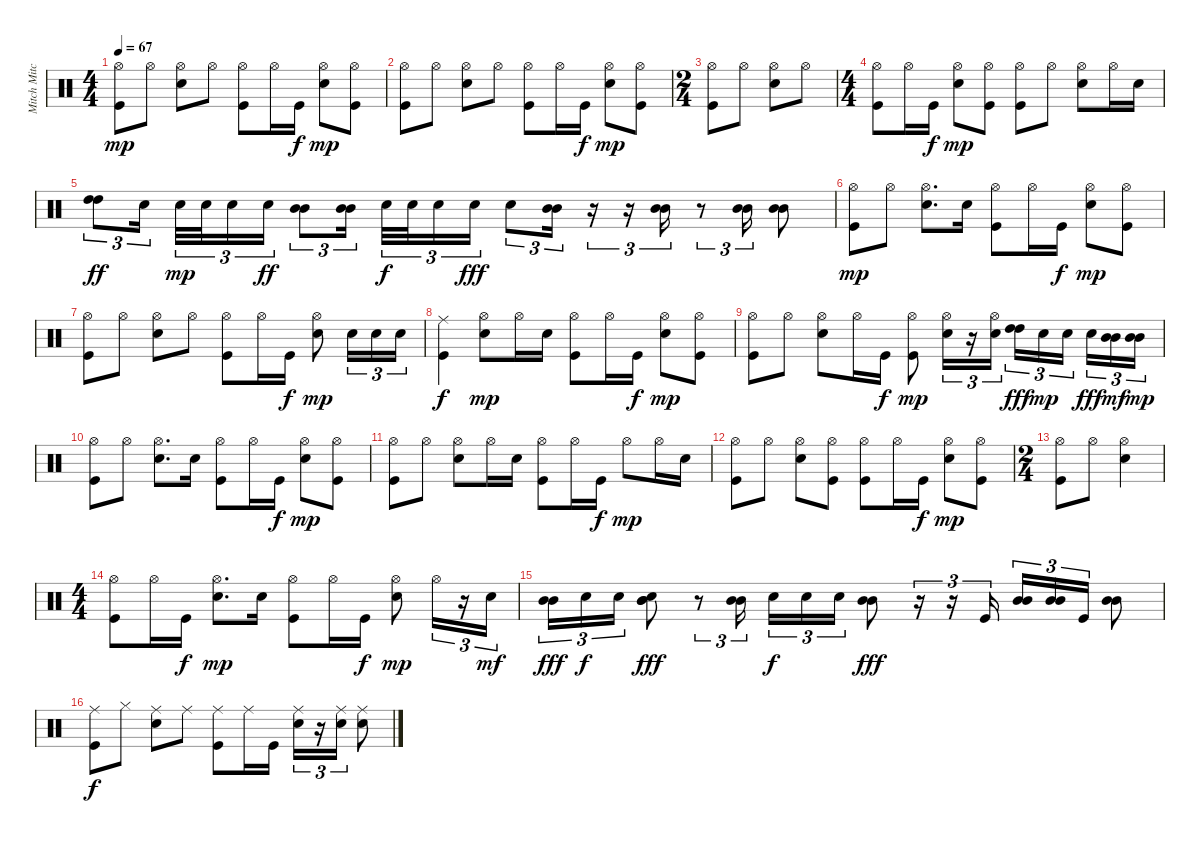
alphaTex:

\track ("Mitch Mitchell" "Mitch Mitc") {instrument percussion}
\staff {score}
\articulation defaults
\ts (4 4)
\tempo 67
\clef neutral
\ks c
("Hi-Hat (open)" "Kick (hit)").8{dy mp} "Hi-Hat (open)".8 ("Hi-Hat (open)" "Electric Snare (hit)").8 "Hi-Hat (open)".8 ("Hi-Hat (open)" "Kick (hit)").8 "Hi-Hat (open)".16 "Kick (hit)".16{dy f} ("Hi-Hat (open)" "Electric Snare (hit)").8{dy mp} ("Hi-Hat (open)" "Kick (hit)").8 |
("Hi-Hat (open)" "Kick (hit)").8 "Hi-Hat (open)".8 ("Hi-Hat (open)" "Electric Snare (hit)").8 "Hi-Hat (open)".8 ("Hi-Hat (open)" "Kick (hit)").8 "Hi-Hat (open)".16 "Kick (hit)".16{dy f} ("Hi-Hat (open)" "Electric Snare (hit)").8{dy mp} ("Hi-Hat (open)" "Kick (hit)").8 |
\ts (2 4)
("Hi-Hat (open)" "Kick (hit)").8 "Hi-Hat (open)".8 ("Hi-Hat (open)" "Electric Snare (hit)").8 "Hi-Hat (open)".8 |
\ts (4 4)
("Hi-Hat (open)" "Kick (hit)").8 "Hi-Hat (open)".16 "Kick (hit)".16{dy f} ("Hi-Hat (open)" "Electric Snare (hit)").8{dy mp} ("Hi-Hat (open)" "Kick (hit)").8 ("Hi-Hat (open)" "Kick (hit)").8 "Hi-Hat (open)".8 ("Hi-Hat (open)" "Electric Snare (hit)").8 "Hi-Hat (open)".16 "Electric Snare (hit)".16 |
("High Tom (hit)" "High Tom (hit)").8{tu (3 2) dy ff} "Electric Snare (hit)".16{tu (3 2) beam splitsecondary} "Electric Snare (hit)".32{tu (3 2) dy mp} "Electric Snare (hit)".32{tu (3 2)} "Electric Snare (hit)".16{tu (3 2)} "Electric Snare (hit)".16{tu (3 2) dy ff} ("Mid Tom (hit)" "Mid Tom (hit)").8{tu (3 2)} ("Mid Tom (hit)" "Mid Tom (hit)").16{tu (3 2) beam splitsecondary} "Electric Snare (hit)".32{tu (3 2) dy f} "Electric Snare (hit)".32{tu (3 2)} "Electric Snare (hit)".16{tu (3 2)} "Electric Snare (hit)".16{tu (3 2) dy fff} "Electric Snare (hit)".8{tu (3 2)} ("Mid Tom (hit)" "Mid Tom (hit)").16{tu (3 2)} r.16{tu (3 2)} r.16{tu (3 2)} ("Mid Tom (hit)" "Mid Tom (hit)").16{tu (3 2)} r.8{tu (3 2)} ("Mid Tom (hit)" "Mid Tom (hit)").16{tu (3 2)} ("Mid Tom (hit)" "Mid Tom (hit)").8 |
("Hi-Hat (open)" "Kick (hit)").8{dy mp} "Hi-Hat (open)".8 ("Hi-Hat (open)" "Electric Snare (hit)").8{d} "Electric Snare (hit)".16 ("Hi-Hat (open)" "Kick (hit)").8 "Hi-Hat (open)".16 "Kick (hit)".16{dy f} ("Hi-Hat (open)" "Electric Snare (hit)").8{dy mp} ("Hi-Hat (open)" "Kick (hit)").8 |
("Hi-Hat (open)" "Kick (hit)").8 "Hi-Hat (open)".8 ("Hi-Hat (open)" "Electric Snare (hit)").8 "Hi-Hat (open)".8 ("Hi-Hat (open)" "Kick (hit)").8 "Hi-Hat (open)".16 "Kick (hit)".16{dy f} ("Hi-Hat (open)" "Electric Snare (hit)").8{dy mp} "Electric Snare (hit)".16{tu (3 2)} "Electric Snare (hit)".16{tu (3 2)} "Electric Snare (hit)".16{tu (3 2)} |
("Ride (middle)" "Kick (hit)").4{dy f} ("Hi-Hat (open)" "Electric Snare (hit)").8{dy mp} "Hi-Hat (open)".16 "Electric Snare (hit)".16 ("Hi-Hat (open)" "Kick (hit)").8 "Hi-Hat (open)".16 "Kick (hit)".16{dy f} ("Hi-Hat (open)" "Electric Snare (hit)").8{dy mp} ("Hi-Hat (open)" "Kick (hit)").8 |
("Hi-Hat (open)" "Kick (hit)").8 "Hi-Hat (open)".8 ("Hi-Hat (open)" "Electric Snare (hit)").8 "Hi-Hat (open)".16 "Kick (hit)".16{dy f} ("Hi-Hat (open)" "Kick (hit)").8{dy mp} ("Hi-Hat (open)" "Electric Snare (hit)").16{tu (3 2)} r.16{tu (3 2)} ("Hi-Hat (open)" "Electric Snare (hit)").16{tu (3 2)} ("High Tom (hit)" "High Tom (hit)").16{tu (3 2) dy fff} "Electric Snare (hit)".16{tu (3 2) dy mp} "Electric Snare (hit)".16{tu (3 2) beam splitsecondary} "Electric Snare (hit)".16{tu (3 2) dy fff} ("Mid Tom (hit)" "Mid Tom (hit)").16{tu (3 2) dy mf} ("Mid Tom (hit)" "Mid Tom (hit)").16{tu (3 2) dy mp} |
("Hi-Hat (open)" "Kick (hit)").8 "Hi-Hat (open)".8 ("Hi-Hat (open)" "Electric Snare (hit)").8{d} "Electric Snare (hit)".16 ("Hi-Hat (open)" "Kick (hit)").8 "Hi-Hat (open)".16 "Kick (hit)".16{dy f} ("Hi-Hat (open)" "Electric Snare (hit)").8{dy mp} ("Hi-Hat (open)" "Kick (hit)").8 |
("Hi-Hat (open)" "Kick (hit)").8 "Hi-Hat (open)".8 ("Hi-Hat (open)" "Electric Snare (hit)").8 "Hi-Hat (open)".16 "Electric Snare (hit)".16 ("Hi-Hat (open)" "Kick (hit)").8 "Hi-Hat (open)".16 "Kick (hit)".16{dy f} "Hi-Hat (open)".8{dy mp} "Hi-Hat (open)".16 "Electric Snare (hit)".16 |
("Hi-Hat (open)" "Kick (hit)").8 "Hi-Hat (open)".8 ("Hi-Hat (open)" "Electric Snare (hit)").8 ("Hi-Hat (open)" "Kick (hit)").8 ("Hi-Hat (open)" "Kick (hit)").8 "Hi-Hat (open)".16 "Kick (hit)".16{dy f} ("Hi-Hat (open)" "Electric Snare (hit)").8{dy mp} ("Hi-Hat (open)" "Kick (hit)").8 |
\ts (2 4)
("Hi-Hat (open)" "Kick (hit)").8 "Hi-Hat (open)".8 ("Hi-Hat (open)" "Electric Snare (hit)").4 |
\ts (4 4)
("Hi-Hat (open)" "Kick (hit)").8 "Hi-Hat (open)".16 "Kick (hit)".16{dy f} ("Hi-Hat (open)" "Electric Snare (hit)").8{d dy mp} "Electric Snare (hit)".16 ("Hi-Hat (open)" "Kick (hit)").8 "Hi-Hat (open)".16 "Kick (hit)".16{dy f} ("Hi-Hat (open)" "Electric Snare (hit)").8{dy mp} "Hi-Hat (open)".16{tu (3 2)} r.16{tu (3 2)} "Electric Snare (hit)".16{tu (3 2) dy mf} |
("Mid Tom (hit)" "Mid Tom (hit)").16{tu (3 2) dy fff} "Electric Snare (hit)".16{tu (3 2) dy f} "Electric Snare (hit)".16{tu (3 2)} ("Mid Tom (hit)" "Electric Snare (hit)" "Mid Tom (hit)").8{dy fff} r.8{tu (3 2)} ("Mid Tom (hit)" "Mid Tom (hit)").16{tu (3 2) beam splitsecondary} "Electric Snare (hit)".16{tu (3 2) dy f} "Electric Snare (hit)".16{tu (3 2)} "Electric Snare (hit)".16{tu (3 2)} ("Mid Tom (hit)" "Mid Tom (hit)").8{dy fff} r.16{tu (3 2)} r.16{tu (3 2)} "Kick (hit)".16{tu (3 2)} ("Mid Tom (hit)" "Mid Tom (hit)").16{tu (3 2)} ("Mid Tom (hit)" "Mid Tom (hit)").16{tu (3 2)} "Kick (hit)".16{tu (3 2)} ("Mid Tom (hit)" "Mid Tom (hit)").8 |
("Ride (middle)" "Kick (hit)").8{dy f} "Hi-Hat (closed)".8 ("Ride (middle)" "Electric Snare (hit)").8 "Ride (middle)".8 ("Ride (middle)" "Kick (hit)").8 "Ride (middle)".16 "Kick (hit)".16 ("Ride (middle)" "Electric Snare (hit)").16{tu (3 2)} r.16{tu (3 2)} ("Ride (middle)" "Electric Snare (hit)").16{tu (3 2)} ("Ride (middle)" "Electric Snare (hit)").8
